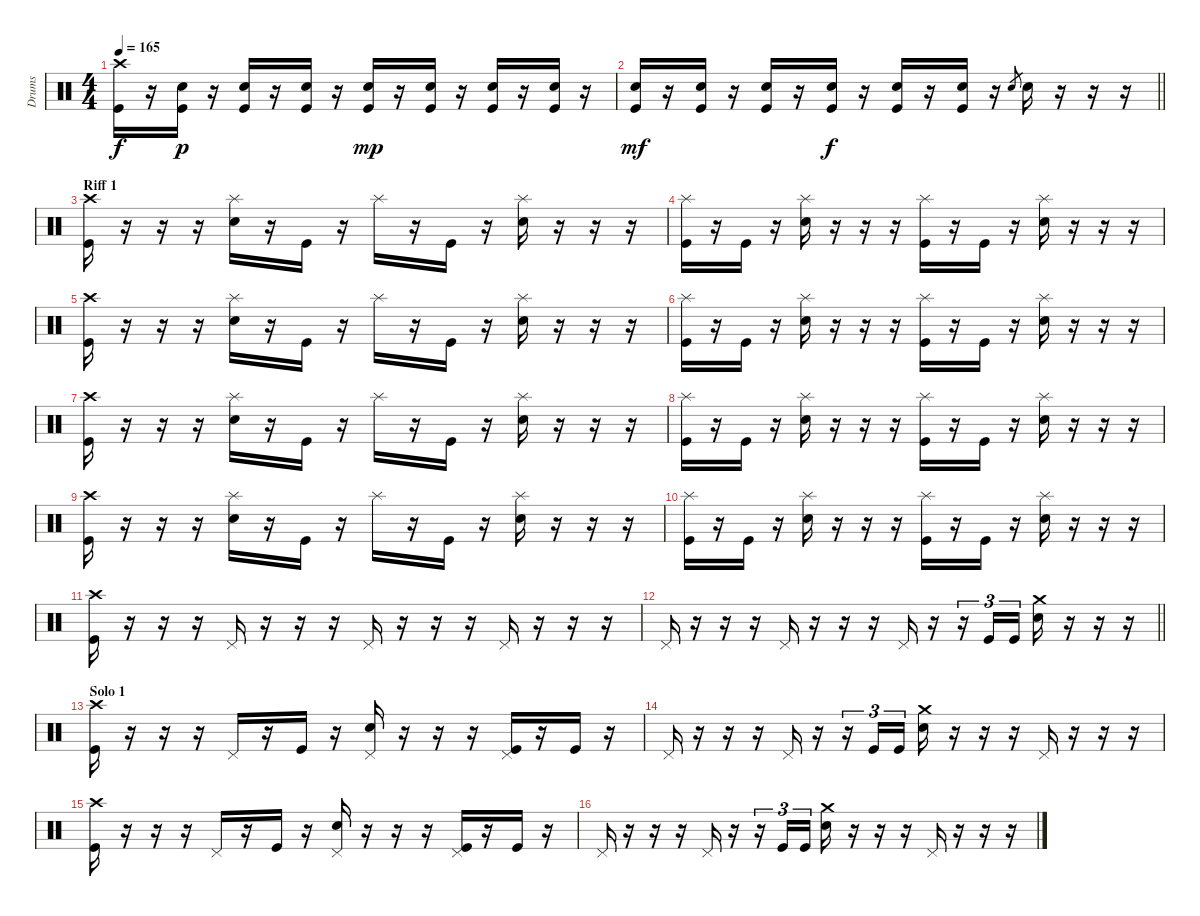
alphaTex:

\track ("Drums" "Drums") {instrument percussion}
\staff {score}
\articulation defaults
\ts (4 4)
\tempo 165
\clef neutral
\ks c
("Crash high (hit)" "Kick (hit)").16{dy f} r.16 ("Electric Snare (hit)" "Kick (hit)").16{dy p} r.16 ("Electric Snare (hit)" "Kick (hit)").16 r.16 ("Electric Snare (hit)" "Kick (hit)").16 r.16 ("Electric Snare (hit)" "Kick (hit)").16{dy mp} r.16 ("Electric Snare (hit)" "Kick (hit)").16 r.16 ("Electric Snare (hit)" "Kick (hit)").16 r.16 ("Electric Snare (hit)" "Kick (hit)").16 r.16 |
\barLineRight lightlight
("Electric Snare (hit)" "Kick (hit)").16{dy mf} r.16 ("Electric Snare (hit)" "Kick (hit)").16 r.16 ("Electric Snare (hit)" "Kick (hit)").16 r.16 ("Electric Snare (hit)" "Kick (hit)").16{dy f} r.16 ("Electric Snare (hit)" "Kick (hit)").16 r.16 ("Electric Snare (hit)" "Kick (hit)").16 r.16 "Electric Snare (hit)".8{gr} "Electric Snare (hit)".16 r.16 r.16 r.16 |
\section ("" "Riff 1")
("Crash high (hit)" "Kick (hit)").16 r.16 r.16 r.16 ("Splash (hit)" "Electric Snare (hit)").16 r.16 "Kick (hit)".16 r.16 "Splash (hit)".16 r.16 "Kick (hit)".16 r.16 ("Splash (hit)" "Electric Snare (hit)").16 r.16 r.16 r.16 |
("Splash (hit)" "Kick (hit)").16 r.16 "Kick (hit)".16 r.16 ("Splash (hit)" "Electric Snare (hit)").16 r.16 r.16 r.16 ("Splash (hit)" "Kick (hit)").16 r.16 "Kick (hit)".16 r.16 ("Splash (hit)" "Electric Snare (hit)").16 r.16 r.16 r.16 |
("Crash high (hit)" "Kick (hit)").16 r.16 r.16 r.16 ("Splash (hit)" "Electric Snare (hit)").16 r.16 "Kick (hit)".16 r.16 "Splash (hit)".16 r.16 "Kick (hit)".16 r.16 ("Splash (hit)" "Electric Snare (hit)").16 r.16 r.16 r.16 |
("Splash (hit)" "Kick (hit)").16 r.16 "Kick (hit)".16 r.16 ("Splash (hit)" "Electric Snare (hit)").16 r.16 r.16 r.16 ("Splash (hit)" "Kick (hit)").16 r.16 "Kick (hit)".16 r.16 ("Splash (hit)" "Electric Snare (hit)").16 r.16 r.16 r.16 |
("Crash high (hit)" "Kick (hit)").16 r.16 r.16 r.16 ("Splash (hit)" "Electric Snare (hit)").16 r.16 "Kick (hit)".16 r.16 "Splash (hit)".16 r.16 "Kick (hit)".16 r.16 ("Splash (hit)" "Electric Snare (hit)").16 r.16 r.16 r.16 |
("Splash (hit)" "Kick (hit)").16 r.16 "Kick (hit)".16 r.16 ("Splash (hit)" "Electric Snare (hit)").16 r.16 r.16 r.16 ("Splash (hit)" "Kick (hit)").16 r.16 "Kick (hit)".16 r.16 ("Splash (hit)" "Electric Snare (hit)").16 r.16 r.16 r.16 |
("Crash high (hit)" "Kick (hit)").16 r.16 r.16 r.16 ("Splash (hit)" "Electric Snare (hit)").16 r.16 "Kick (hit)".16 r.16 "Splash (hit)".16 r.16 "Kick (hit)".16 r.16 ("Splash (hit)" "Electric Snare (hit)").16 r.16 r.16 r.16 |
("Splash (hit)" "Kick (hit)").16 r.16 "Kick (hit)".16 r.16 ("Splash (hit)" "Electric Snare (hit)").16 r.16 r.16 r.16 ("Splash (hit)" "Kick (hit)").16 r.16 "Kick (hit)".16 r.16 ("Splash (hit)" "Electric Snare (hit)").16 r.16 r.16 r.16 |
("Crash high (hit)" "Kick (hit)").16 r.16 r.16 r.16 "Pedal Hi-Hat (hit)".16 r.16 r.16 r.16 "Pedal Hi-Hat (hit)".16 r.16 r.16 r.16 "Pedal Hi-Hat (hit)".16 r.16 r.16 r.16 |
\barLineRight lightlight "Pedal Hi-Hat (hit)".16
r.16 r.16 r.16 "Pedal Hi-Hat (hit)".16 r.16 r.16 r.16 "Pedal Hi-Hat (hit)".16 r.16 r.16{tu (3 2)} "Kick (hit)".16{tu (3 2)} "Kick (hit)".16{tu (3 2)} ("Crash medium (hit)" "Electric Snare (hit)").16 r.16 r.16 r.16 |
\section ("" "Solo 1")
("Crash high (hit)" "Kick (hit)").16 r.16 r.16 r.16 "Pedal Hi-Hat (hit)".16 r.16 "Kick (hit)".16 r.16 ("Pedal Hi-Hat (hit)" "Electric Snare (hit)").16 r.16 r.16 r.16 ("Pedal Hi-Hat (hit)" "Kick (hit)").16 r.16 "Kick (hit)".16 r.16 |
"Pedal Hi-Hat (hit)".16 r.16 r.16 r.16 "Pedal Hi-Hat (hit)".16 r.16 r.16{tu (3 2)} "Kick (hit)".16{tu (3 2)} "Kick (hit)".16{tu (3 2)} ("Crash medium (hit)" "Electric Snare (hit)").16 r.16 r.16 r.16 "Pedal Hi-Hat (hit)".16 r.16 r.16 r.16 |
("Crash high (hit)" "Kick (hit)").16 r.16 r.16 r.16 "Pedal Hi-Hat (hit)".16 r.16 "Kick (hit)".16 r.16 ("Pedal Hi-Hat (hit)" "Electric Snare (hit)").16 r.16 r.16 r.16 ("Pedal Hi-Hat (hit)" "Kick (hit)").16 r.16 "Kick (hit)".16 r.16 |
"Pedal Hi-Hat (hit)".16 r.16 r.16 r.16 "Pedal Hi-Hat (hit)".16 r.16 r.16{tu (3 2)} "Kick (hit)".16{tu (3 2)} "Kick (hit)".16{tu (3 2)} ("Crash medium (hit)" "Electric Snare (hit)").16 r.16 r.16 r.16 "Pedal Hi-Hat (hit)".16 r.16 r.16 r.16
